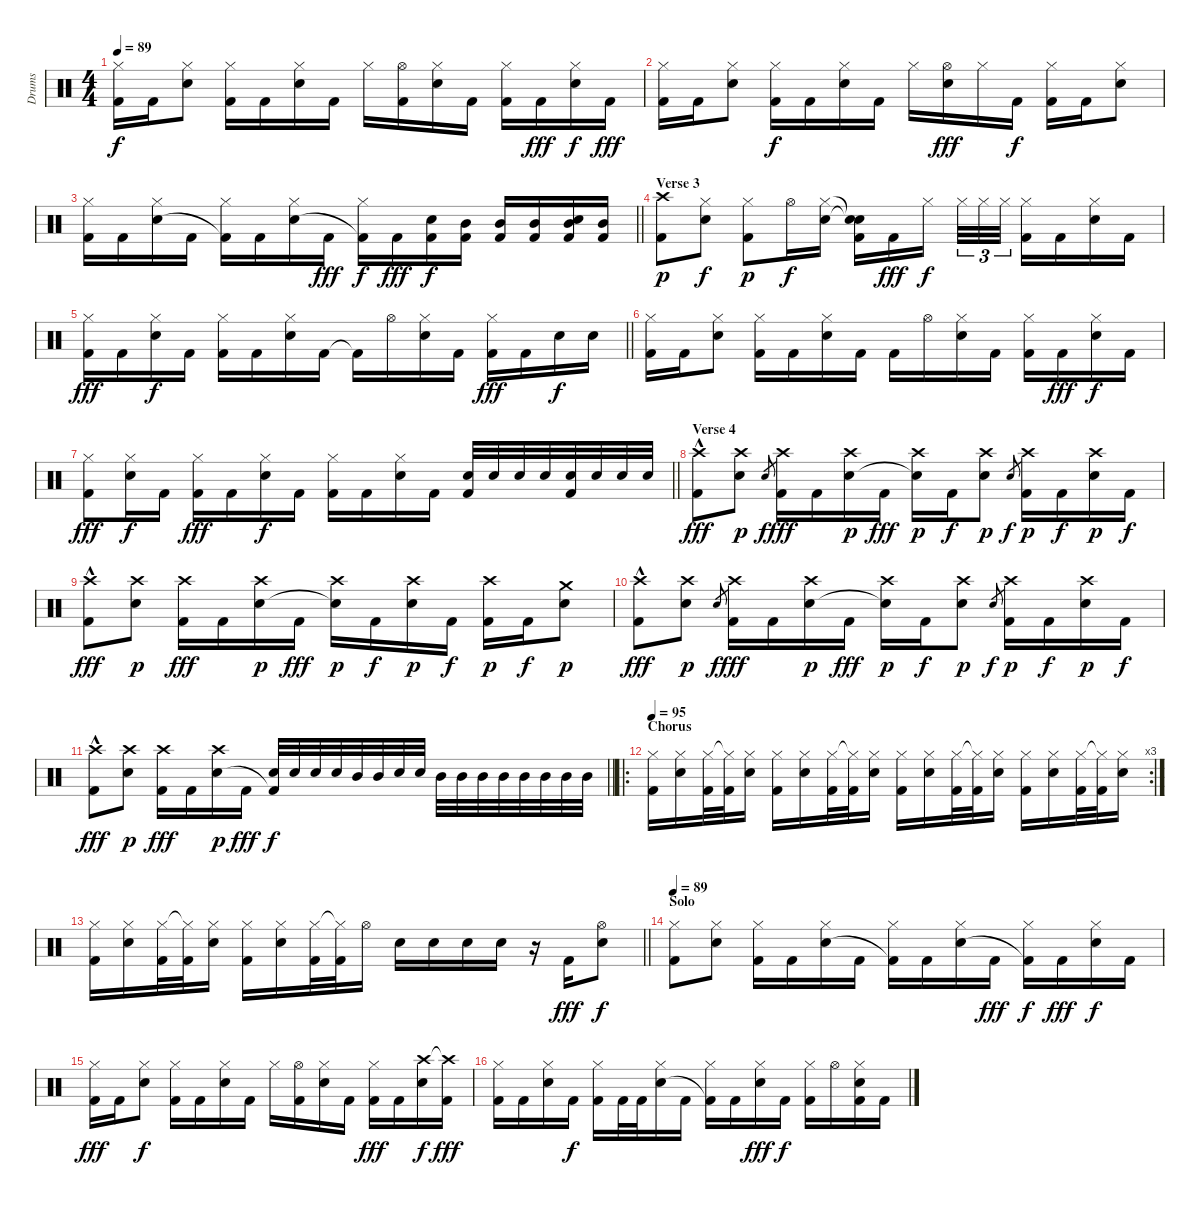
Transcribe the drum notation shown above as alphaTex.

\track ("Drums" "Drums") {instrument percussion}
\staff {score}
\articulation defaults
\ts (4 4)
\tempo 89
\clef neutral
\ks c
("Hi-Hat (closed)" "Kick (hit) 2").16{dy f} "Kick (hit) 2".16 ("Hi-Hat (closed)" "Snare (hit) 2").8 ("Hi-Hat (closed)" "Kick (hit) 2").16 "Kick (hit) 2".16 ("Hi-Hat (closed)" "Snare (hit) 2").16 "Kick (hit) 2".16 "Hi-Hat (closed)".16 ("Hi-Hat (open)" "Kick (hit) 2").16 ("Hi-Hat (closed)" "Snare (hit) 2").16 "Kick (hit) 2".16 ("Hi-Hat (closed)" "Kick (hit) 2").16 "Kick (hit) 2".16{dy fff} ("Hi-Hat (closed)" "Snare (hit) 2").16{dy f} "Kick (hit) 2".16{dy fff} |
("Hi-Hat (closed)" "Kick (hit) 2").16 "Kick (hit) 2".16 ("Hi-Hat (closed)" "Snare (hit) 2").8 ("Hi-Hat (closed)" "Kick (hit) 2").16{dy f} "Kick (hit) 2".16 ("Hi-Hat (closed)" "Snare (hit) 2").16 "Kick (hit) 2".16 "Hi-Hat (closed)".16 ("Hi-Hat (open)" "Snare (hit) 2").16{dy fff} "Hi-Hat (closed)".16 "Kick (hit) 2".16{dy f} ("Hi-Hat (closed)" "Kick (hit) 2").16 "Kick (hit) 2".16 ("Hi-Hat (closed)" "Snare (hit) 2").8 |
\barLineRight lightlight
("Hi-Hat (closed)" "Kick (hit) 2").16 "Kick (hit) 2".16 ("Hi-Hat (closed)" "Snare (hit) 2").16 "Kick (hit) 2".16 ("Hi-Hat (closed)" "Kick (hit) 2"{t}).16 "Kick (hit) 2".16 ("Hi-Hat (closed)" "Snare (hit) 2").16 "Kick (hit) 2".16{dy fff} ("Hi-Hat (closed)" "Kick (hit) 2"{t}).16{dy f} "Kick (hit) 2".16{dy fff} ("Snare (hit) 2" "Kick (hit) 2").16{dy f} ("Mid Tom (hit)" "Kick (hit) 2").16 ("Mid Tom (hit)" "Kick (hit) 2").16 ("Mid Tom (hit)" "Kick (hit) 2").16 ("Snare (hit) 2" "Mid Tom (hit)" "Kick (hit) 2").16 ("Mid Tom (hit)" "Kick (hit) 2").16 |
\section ("" "Verse 3")
("Crash high (hit)" "Kick (hit) 2").8{dy p} ("Hi-Hat (closed)" "Snare (hit) 2").8{dy f} ("Hi-Hat (closed)" "Kick (hit) 2").8{dy p} "Hi-Hat (open)".16{dy f} ("Hi-Hat (closed)" "Snare (hit) 2").16 ("Snare (hit)"{t} "Snare (hit)"{t} "Kick (hit) 2").16 "Kick (hit) 2".16{dy fff} "Hi-Hat (closed)".16{dy f beam splitsecondary} "Hi-Hat (closed)".32{tu (3 2)} "Hi-Hat (closed)".32{tu (3 2)} "Hi-Hat (closed)".32{tu (3 2)} ("Hi-Hat (closed)" "Kick (hit) 2").16 "Kick (hit) 2".16 ("Hi-Hat (closed)" "Snare (hit) 2").16 "Kick (hit) 2".16 |
\barLineRight lightlight
("Hi-Hat (closed)" "Kick (hit) 2").16{dy fff} "Kick (hit) 2".16 ("Hi-Hat (closed)" "Snare (hit) 2").16{dy f} "Kick (hit) 2".16 ("Hi-Hat (closed)" "Kick (hit) 2").16 "Kick (hit) 2".16 ("Hi-Hat (closed)" "Snare (hit) 2").16 "Kick (hit) 2".16 "Kick (hit) 2"{t}.16 "Hi-Hat (open)".16 ("Hi-Hat (closed)" "Snare (hit) 2").16 "Kick (hit) 2".16 ("Hi-Hat (closed)" "Kick (hit) 2").16{dy fff} "Kick (hit) 2".16 "Snare (hit) 2".16{dy f} "Snare (hit) 2".16 |
("Hi-Hat (closed)" "Kick (hit) 2").16 "Kick (hit) 2".16 ("Hi-Hat (closed)" "Snare (hit) 2").8 ("Hi-Hat (closed)" "Kick (hit) 2").16 "Kick (hit) 2".16 ("Hi-Hat (closed)" "Snare (hit) 2").16 "Kick (hit) 2".16 "Kick (hit) 2".16 "Hi-Hat (open)".16 ("Hi-Hat (closed)" "Snare (hit) 2").16 "Kick (hit) 2".16 ("Hi-Hat (closed)" "Kick (hit) 2").16 "Kick (hit) 2".16{dy fff} ("Hi-Hat (closed)" "Snare (hit) 2").16{dy f} "Kick (hit) 2".16 |
\barLineRight lightlight
("Hi-Hat (closed)" "Kick (hit) 2").8{dy fff} ("Hi-Hat (closed)" "Snare (hit) 2").16{dy f} "Kick (hit) 2".16 ("Hi-Hat (closed)" "Kick (hit) 2").16{dy fff} "Kick (hit) 2".16 ("Hi-Hat (closed)" "Snare (hit) 2").16{dy f} "Kick (hit) 2".16 ("Hi-Hat (closed)" "Kick (hit) 2").16 "Kick (hit) 2".16 ("Hi-Hat (closed)" "Snare (hit) 2").16 "Kick (hit) 2".16 ("Snare (hit) 2" "Kick (hit) 2").32 "Snare (hit) 2".32 "Snare (hit) 2".32 "Snare (hit) 2".32 ("Snare (hit) 2" "Kick (hit) 2").32 "Snare (hit) 2".32 "Snare (hit) 2".32 "Snare (hit) 2".32 |
\section ("" "Verse 4")
("Crash high (hit)"{hac} "Kick (hit) 2").8{dy fff} ("Crash high (hit)" "Snare (hit) 2").8{dy p} "Snare (hit) 2".8{gr dy f} ("Crash high (hit)" "Kick (hit) 2").16{dy fff} "Kick (hit) 2".16 ("Crash high (hit)" "Snare (hit) 2").16{dy p} "Kick (hit) 2".16{dy fff} ("Crash high (hit)" "Snare (hit)"{t}).16{dy p} "Kick (hit) 2".16{dy f} ("Crash high (hit)" "Snare (hit) 2").8{dy p} "Snare (hit) 2".8{gr dy f} ("Crash high (hit)" "Kick (hit) 2").16{dy p} "Kick (hit) 2".16{dy f} ("Crash high (hit)" "Snare (hit) 2").16{dy p} "Kick (hit) 2".16{dy f} |
("Crash high (hit)"{hac} "Kick (hit) 2").8{dy fff} ("Crash high (hit)" "Snare (hit) 2").8{dy p} ("Crash high (hit)" "Kick (hit) 2").16{dy fff} "Kick (hit) 2".16 ("Crash high (hit)" "Snare (hit) 2").16{dy p} "Kick (hit) 2".16{dy fff} ("Crash high (hit)" "Snare (hit)"{t}).16{dy p} "Kick (hit) 2".16{dy f} ("Crash high (hit)" "Snare (hit) 2").16{dy p} "Kick (hit) 2".16{dy f} ("Crash high (hit)" "Kick (hit) 2").16{dy p} "Kick (hit) 2".16{dy f} ("Crash medium (hit)" "Snare (hit) 2").8{dy p} |
("Crash high (hit)"{hac} "Kick (hit) 2").8{dy fff} ("Crash high (hit)" "Snare (hit) 2").8{dy p} "Snare (hit) 2".8{gr dy f} ("Crash high (hit)" "Kick (hit) 2").16{dy fff} "Kick (hit) 2".16 ("Crash high (hit)" "Snare (hit) 2").16{dy p} "Kick (hit) 2".16{dy fff} ("Crash high (hit)" "Snare (hit)"{t}).16{dy p} "Kick (hit) 2".16{dy f} ("Crash high (hit)" "Snare (hit) 2").8{dy p} "Snare (hit) 2".8{gr dy f} ("Crash high (hit)" "Kick (hit) 2").16{dy p} "Kick (hit) 2".16{dy f} ("Crash high (hit)" "Snare (hit) 2").16{dy p} "Kick (hit) 2".16{dy f} |
\barLineRight lightlight
("Crash high (hit)"{hac} "Kick (hit) 2").8{dy fff} ("Crash high (hit)" "Snare (hit) 2").8{dy p} ("Crash high (hit)" "Kick (hit) 2").16{dy fff} "Kick (hit) 2".16 ("Crash high (hit)" "Snare (hit) 2").16{dy p} "Kick (hit) 2".16{dy fff} ("Snare (hit) 2" "Kick (hit) 2"{t}).32{dy f} "Snare (hit) 2".32 "Snare (hit) 2".32 "Snare (hit) 2".32 "Mid Tom (hit)".32 "Mid Tom (hit)".32 "Snare (hit) 2".32 "Snare (hit) 2".32 "Mid Tom (hit)".32 "Mid Tom (hit)".32 "Mid Tom (hit)".32 "Mid Tom (hit)".32 "Mid Tom (hit)".32 "Mid Tom (hit)".32 "Mid Tom (hit)".32 "Mid Tom (hit)".32 |
\ro
\rc 3
\section ("" "Chorus")
\tempo 95
("Hi-Hat (closed)" "Kick (hit) 2").16 ("Hi-Hat (closed)" "Snare (hit) 2").16 ("Hi-Hat (closed)" "Kick (hit) 2").32 ("Hi-Hat (closed)"{t} "Kick (hit) 2").32 ("Hi-Hat (closed)" "Snare (hit) 2").16 ("Hi-Hat (closed)" "Kick (hit) 2").16 ("Hi-Hat (closed)" "Snare (hit) 2").16 ("Hi-Hat (closed)" "Kick (hit) 2").32 ("Hi-Hat (closed)"{t} "Kick (hit) 2").32 ("Hi-Hat (closed)" "Snare (hit) 2").16 ("Hi-Hat (closed)" "Kick (hit) 2").16 ("Hi-Hat (closed)" "Snare (hit) 2").16 ("Hi-Hat (closed)" "Kick (hit) 2").32 ("Hi-Hat (closed)"{t} "Kick (hit) 2").32 ("Hi-Hat (closed)" "Snare (hit) 2").16 ("Hi-Hat (closed)" "Kick (hit) 2").16 ("Hi-Hat (closed)" "Snare (hit) 2").16 ("Hi-Hat (closed)" "Kick (hit) 2").32 ("Hi-Hat (closed)"{t} "Kick (hit) 2").32 ("Hi-Hat (closed)" "Snare (hit) 2").16 |
\barLineRight lightlight
("Hi-Hat (closed)" "Kick (hit) 2").16 ("Hi-Hat (closed)" "Snare (hit) 2").16 ("Hi-Hat (closed)" "Kick (hit) 2").32 ("Hi-Hat (closed)"{t} "Kick (hit) 2").32 ("Hi-Hat (closed)" "Snare (hit) 2").16 ("Hi-Hat (closed)" "Kick (hit) 2").16 ("Hi-Hat (closed)" "Snare (hit) 2").16 ("Hi-Hat (closed)" "Kick (hit) 2").32 ("Hi-Hat (closed)"{t} "Kick (hit) 2").32 "Hi-Hat (open)".16 "Snare (hit) 2".16 "Snare (hit) 2".16 "Snare (hit) 2".16 "Snare (hit) 2".16 r.16 "Kick (hit) 2".16{dy fff} ("Hi-Hat (open)" "Snare (hit) 2").8{dy f} |
\section ("" "Solo")
\tempo 89
("Hi-Hat (closed)" "Kick (hit) 2").8 ("Hi-Hat (closed)" "Snare (hit) 2").8 ("Hi-Hat (closed)" "Kick (hit) 2").16 "Kick (hit) 2".16 ("Hi-Hat (closed)" "Snare (hit) 2").16 "Kick (hit) 2".16 ("Hi-Hat (closed)" "Kick (hit) 2"{t}).16 "Kick (hit) 2".16 ("Hi-Hat (closed)" "Snare (hit) 2").16 "Kick (hit) 2".16{dy fff} ("Hi-Hat (closed)" "Kick (hit) 2"{t}).16{dy f} "Kick (hit) 2".16{dy fff} ("Hi-Hat (closed)" "Snare (hit) 2").16{dy f} "Kick (hit) 2".16 |
("Hi-Hat (closed)" "Kick (hit) 2").16{dy fff} "Kick (hit) 2".16 ("Hi-Hat (closed)" "Snare (hit) 2").8{dy f} ("Hi-Hat (closed)" "Kick (hit) 2").16 "Kick (hit) 2".16 ("Hi-Hat (closed)" "Snare (hit) 2").16 "Kick (hit) 2".16 "Hi-Hat (closed)".16 ("Hi-Hat (open)" "Kick (hit) 2").16 ("Hi-Hat (closed)" "Snare (hit) 2").16 "Kick (hit) 2".16 ("Hi-Hat (closed)" "Kick (hit) 2").16{dy fff} "Kick (hit) 2".16 ("Crash high (hit)" "Snare (hit) 2").16{dy f} ("Crash high (hit)"{t} "Kick (hit) 2").16{dy fff} |
("Hi-Hat (closed)" "Kick (hit) 2").16 "Kick (hit) 2".16 ("Hi-Hat (closed)" "Snare (hit) 2").16 "Kick (hit) 2".16{dy f} ("Hi-Hat (closed)" "Kick (hit) 2").16 "Kick (hit) 2".32 "Kick (hit) 2".32 ("Hi-Hat (closed)" "Snare (hit) 2").16 "Kick (hit) 2".16 ("Hi-Hat (closed)" "Kick (hit) 2"{t}).16 "Kick (hit) 2".16 ("Hi-Hat (closed)" "Snare (hit) 2").16{dy fff} "Kick (hit) 2".16{dy f} ("Hi-Hat (closed)" "Kick (hit) 2").16 "Hi-Hat (open)".16 ("Hi-Hat (closed)" "Snare (hit) 2" "Kick (hit) 2").16 "Kick (hit) 2".16
